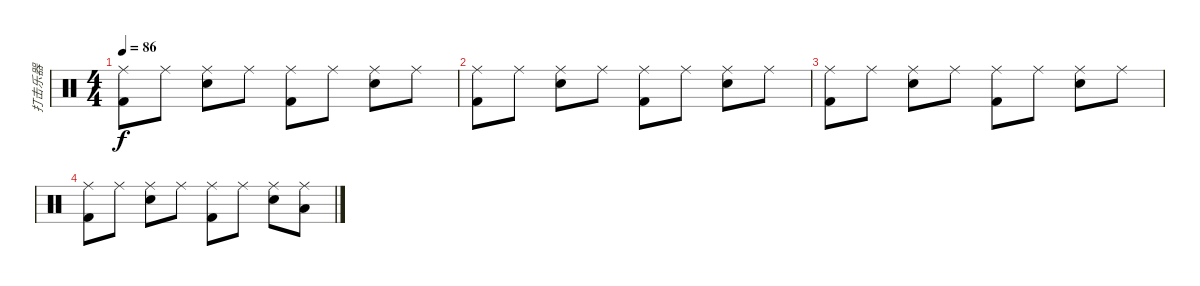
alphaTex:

\track ("打击乐器" "打击乐器") {instrument percussion}
\staff {score}
\articulation defaults
\ts (4 4)
\tempo 86
\clef neutral
\ks c
("Ride (middle)" "Kick (hit) 2").8{dy f} "Ride (middle)".8 ("Ride (middle)" "Snare (hit) 2").8 "Ride (middle)".8 ("Ride (middle)" "Kick (hit) 2").8 "Ride (middle)".8 ("Ride (middle)" "Snare (hit) 2").8 "Ride (middle)".8 |
("Ride (middle)" "Kick (hit) 2").8 "Ride (middle)".8 ("Ride (middle)" "Snare (hit) 2").8 "Ride (middle)".8 ("Ride (middle)" "Kick (hit) 2").8 "Ride (middle)".8 ("Ride (middle)" "Snare (hit) 2").8 "Ride (middle)".8 |
("Ride (middle)" "Kick (hit) 2").8 "Ride (middle)".8 ("Ride (middle)" "Snare (hit) 2").8 "Ride (middle)".8 ("Ride (middle)" "Kick (hit) 2").8 "Ride (middle)".8 ("Ride (middle)" "Snare (hit) 2").8 "Ride (middle)".8 |
("Ride (middle)" "Kick (hit) 2").8 "Ride (middle)".8 ("Ride (middle)" "Snare (hit) 2").8 "Ride (middle)".8 ("Ride (middle)" "Kick (hit) 2").8 "Ride (middle)".8 ("Ride (middle)" "Electric Snare (hit)").8 ("Ride (middle)" "Low Tom (hit)").8
